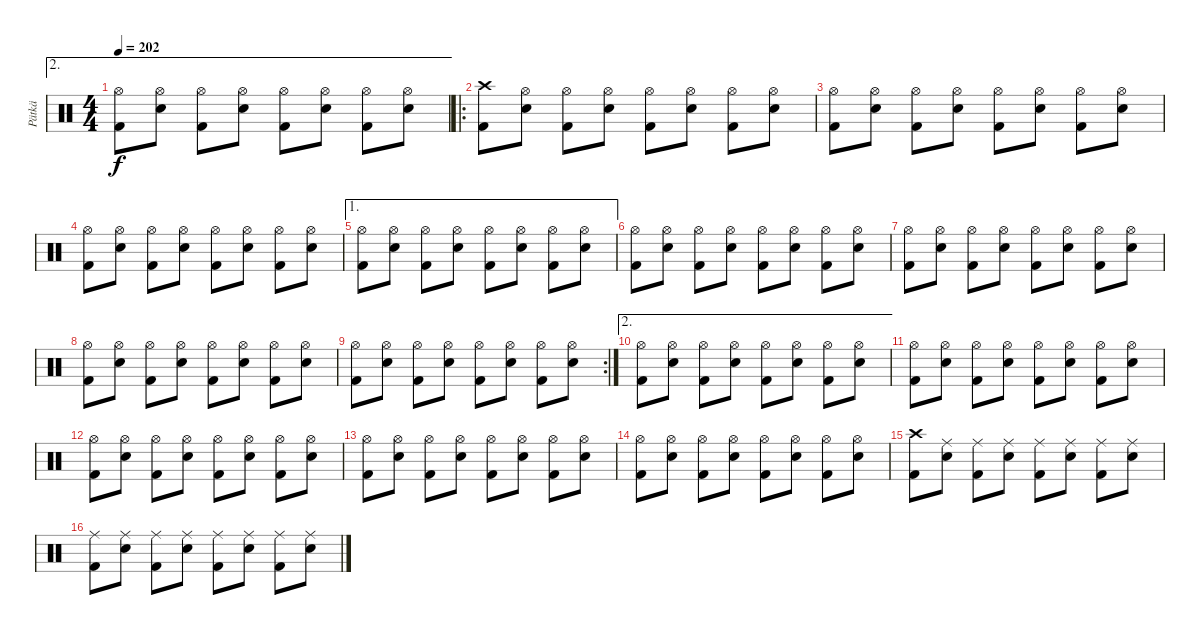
\track ("Pätkä" "Pätkä") {instrument percussion}
\staff {score}
\articulation defaults
\ae 2
\ts (4 4)
\tempo 202
\clef neutral
\ks c
("Hi-Hat (open)" "Kick (hit) 2").8{dy f} ("Hi-Hat (open)" "Electric Snare (hit)").8 ("Hi-Hat (open)" "Kick (hit) 2").8 ("Hi-Hat (open)" "Electric Snare (hit)").8 ("Hi-Hat (open)" "Kick (hit) 2").8 ("Hi-Hat (open)" "Electric Snare (hit)").8 ("Hi-Hat (open)" "Kick (hit) 2").8 ("Hi-Hat (open)" "Electric Snare (hit)").8 |
\ro
("Crash high (hit)" "Kick (hit) 2").8 ("Hi-Hat (open)" "Electric Snare (hit)").8 ("Hi-Hat (open)" "Kick (hit) 2").8 ("Hi-Hat (open)" "Electric Snare (hit)").8 ("Hi-Hat (open)" "Kick (hit) 2").8 ("Hi-Hat (open)" "Electric Snare (hit)").8 ("Hi-Hat (open)" "Kick (hit) 2").8 ("Hi-Hat (open)" "Electric Snare (hit)").8 |
("Hi-Hat (open)" "Kick (hit) 2").8 ("Hi-Hat (open)" "Electric Snare (hit)").8 ("Hi-Hat (open)" "Kick (hit) 2").8 ("Hi-Hat (open)" "Electric Snare (hit)").8 ("Hi-Hat (open)" "Kick (hit) 2").8 ("Hi-Hat (open)" "Electric Snare (hit)").8 ("Hi-Hat (open)" "Kick (hit) 2").8 ("Hi-Hat (open)" "Electric Snare (hit)").8 |
("Hi-Hat (open)" "Kick (hit) 2").8 ("Hi-Hat (open)" "Electric Snare (hit)").8 ("Hi-Hat (open)" "Kick (hit) 2").8 ("Hi-Hat (open)" "Electric Snare (hit)").8 ("Hi-Hat (open)" "Kick (hit) 2").8 ("Hi-Hat (open)" "Electric Snare (hit)").8 ("Hi-Hat (open)" "Kick (hit) 2").8 ("Hi-Hat (open)" "Electric Snare (hit)").8 |
\ae 1
("Hi-Hat (open)" "Kick (hit) 2").8 ("Hi-Hat (open)" "Electric Snare (hit)").8 ("Hi-Hat (open)" "Kick (hit) 2").8 ("Hi-Hat (open)" "Electric Snare (hit)").8 ("Hi-Hat (open)" "Kick (hit) 2").8 ("Hi-Hat (open)" "Electric Snare (hit)").8 ("Hi-Hat (open)" "Kick (hit) 2").8 ("Hi-Hat (open)" "Electric Snare (hit)").8 |
("Hi-Hat (open)" "Kick (hit) 2").8 ("Hi-Hat (open)" "Electric Snare (hit)").8 ("Hi-Hat (open)" "Kick (hit) 2").8 ("Hi-Hat (open)" "Electric Snare (hit)").8 ("Hi-Hat (open)" "Kick (hit) 2").8 ("Hi-Hat (open)" "Electric Snare (hit)").8 ("Hi-Hat (open)" "Kick (hit) 2").8 ("Hi-Hat (open)" "Electric Snare (hit)").8 |
("Hi-Hat (open)" "Kick (hit) 2").8 ("Hi-Hat (open)" "Electric Snare (hit)").8 ("Hi-Hat (open)" "Kick (hit) 2").8 ("Hi-Hat (open)" "Electric Snare (hit)").8 ("Hi-Hat (open)" "Kick (hit) 2").8 ("Hi-Hat (open)" "Electric Snare (hit)").8 ("Hi-Hat (open)" "Kick (hit) 2").8 ("Hi-Hat (open)" "Electric Snare (hit)").8 |
("Hi-Hat (open)" "Kick (hit) 2").8 ("Hi-Hat (open)" "Electric Snare (hit)").8 ("Hi-Hat (open)" "Kick (hit) 2").8 ("Hi-Hat (open)" "Electric Snare (hit)").8 ("Hi-Hat (open)" "Kick (hit) 2").8 ("Hi-Hat (open)" "Electric Snare (hit)").8 ("Hi-Hat (open)" "Kick (hit) 2").8 ("Hi-Hat (open)" "Electric Snare (hit)").8 |
\rc 2
("Hi-Hat (open)" "Kick (hit) 2").8 ("Hi-Hat (open)" "Electric Snare (hit)").8 ("Hi-Hat (open)" "Kick (hit) 2").8 ("Hi-Hat (open)" "Electric Snare (hit)").8 ("Hi-Hat (open)" "Kick (hit) 2").8 ("Hi-Hat (open)" "Electric Snare (hit)").8 ("Hi-Hat (open)" "Kick (hit) 2").8 ("Hi-Hat (open)" "Electric Snare (hit)").8 |
\ae 2
("Hi-Hat (open)" "Kick (hit) 2").8 ("Hi-Hat (open)" "Electric Snare (hit)").8 ("Hi-Hat (open)" "Kick (hit) 2").8 ("Hi-Hat (open)" "Electric Snare (hit)").8 ("Hi-Hat (open)" "Kick (hit) 2").8 ("Hi-Hat (open)" "Electric Snare (hit)").8 ("Hi-Hat (open)" "Kick (hit) 2").8 ("Hi-Hat (open)" "Electric Snare (hit)").8 |
("Hi-Hat (open)" "Kick (hit) 2").8 ("Hi-Hat (open)" "Electric Snare (hit)").8 ("Hi-Hat (open)" "Kick (hit) 2").8 ("Hi-Hat (open)" "Electric Snare (hit)").8 ("Hi-Hat (open)" "Kick (hit) 2").8 ("Hi-Hat (open)" "Electric Snare (hit)").8 ("Hi-Hat (open)" "Kick (hit) 2").8 ("Hi-Hat (open)" "Electric Snare (hit)").8 |
("Hi-Hat (open)" "Kick (hit) 2").8 ("Hi-Hat (open)" "Electric Snare (hit)").8 ("Hi-Hat (open)" "Kick (hit) 2").8 ("Hi-Hat (open)" "Electric Snare (hit)").8 ("Hi-Hat (open)" "Kick (hit) 2").8 ("Hi-Hat (open)" "Electric Snare (hit)").8 ("Hi-Hat (open)" "Kick (hit) 2").8 ("Hi-Hat (open)" "Electric Snare (hit)").8 |
("Hi-Hat (open)" "Kick (hit) 2").8 ("Hi-Hat (open)" "Electric Snare (hit)").8 ("Hi-Hat (open)" "Kick (hit) 2").8 ("Hi-Hat (open)" "Electric Snare (hit)").8 ("Hi-Hat (open)" "Kick (hit) 2").8 ("Hi-Hat (open)" "Electric Snare (hit)").8 ("Hi-Hat (open)" "Kick (hit) 2").8 ("Hi-Hat (open)" "Electric Snare (hit)").8 |
("Hi-Hat (open)" "Kick (hit) 2").8 ("Hi-Hat (open)" "Electric Snare (hit)").8 ("Hi-Hat (open)" "Kick (hit) 2").8 ("Hi-Hat (open)" "Electric Snare (hit)").8 ("Hi-Hat (open)" "Kick (hit) 2").8 ("Hi-Hat (open)" "Electric Snare (hit)").8 ("Hi-Hat (open)" "Kick (hit) 2").8 ("Hi-Hat (open)" "Electric Snare (hit)").8 |
("Crash high (hit)" "Kick (hit) 2").8 ("Ride (middle)" "Electric Snare (hit)").8 ("Ride (middle)" "Kick (hit) 2").8 ("Ride (middle)" "Electric Snare (hit)").8 ("Ride (middle)" "Kick (hit) 2").8 ("Ride (middle)" "Electric Snare (hit)").8 ("Ride (middle)" "Kick (hit) 2").8 ("Ride (middle)" "Electric Snare (hit)").8 |
("Ride (middle)" "Kick (hit) 2").8 ("Ride (middle)" "Electric Snare (hit)").8 ("Ride (middle)" "Kick (hit) 2").8 ("Ride (middle)" "Electric Snare (hit)").8 ("Ride (middle)" "Kick (hit) 2").8 ("Ride (middle)" "Electric Snare (hit)").8 ("Ride (middle)" "Kick (hit) 2").8 ("Ride (middle)" "Electric Snare (hit)").8
